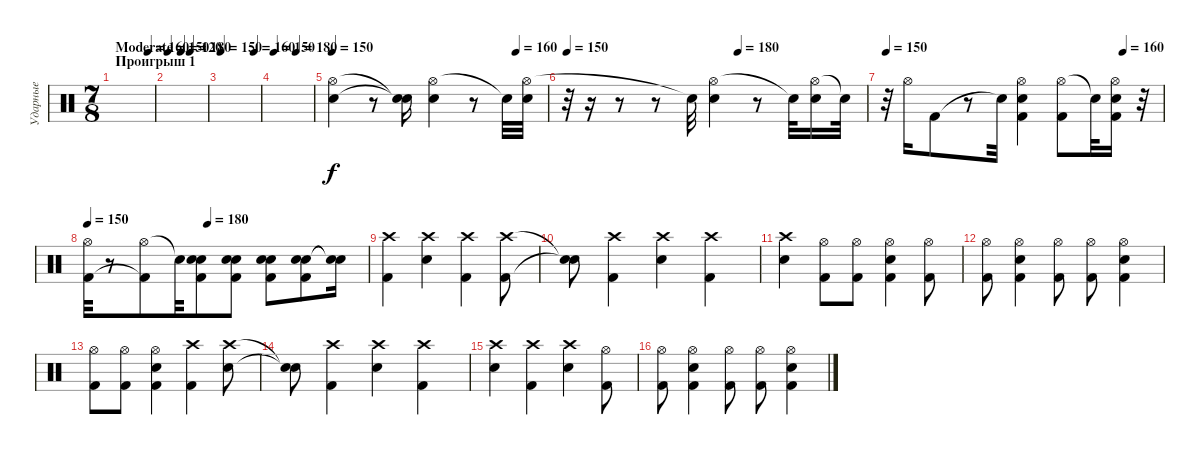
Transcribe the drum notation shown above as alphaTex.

\track ("Ударные" "Ударные") {instrument percussion}
\staff {score}
\articulation defaults
\ts (7 8)
\section ("" "Проигрыш 1")
\tempo (120 "Moderate")
\tempo 150
\tempo (160 0.8571428571428571)
\tempo (120 "Moderate")
\clef neutral
\ks c
|
\tempo 150
\tempo (180 0.5714285714285714)
|
\tempo 150
\tempo (160 0.8571428571428571)
|
\tempo 150
\tempo (180 0.5714285714285714)
|
\tempo 150
\tempo (160 0.8571428571428571)
("Hi-Hat (open)" "Snare (hit) 2").4 r.8 ("Snare (hit)"{t} "Snare (hit) 2"{t}).16 ("Hi-Hat (open)" "Snare (hit) 2").4 r.8 "Snare (hit)"{t}.32 ("Hi-Hat (open)" "Snare (hit) 2").32 |
\tempo 150
\tempo (180 0.5714285714285714)
r.32 r.16 r.8 r.8 "Snare (hit)"{t}.32 ("Hi-Hat (open)" "Snare (hit) 2").4 r.8 "Snare (hit)"{t}.32 ("Hi-Hat (open)" "Snare (hit) 2").16 "Snare (hit)"{t}.32 |
\tempo 150
\tempo (160 0.8571428571428571)
r.32 "Hi-Hat (open)".16 "Kick (hit) 2".8 r.8 "Snare (hit)"{t}.32 ("Hi-Hat (open)" "Snare (hit) 2" "Kick (hit) 2").4 ("Hi-Hat (open)" "Kick (hit) 2").8 "Snare (hit)"{t}.32 ("Hi-Hat (open)" "Snare (hit) 2" "Kick (hit) 2").16 r.32 |
\tempo 150
\tempo (180 0.42857142857142855)
("Hi-Hat (open)" "Kick (hit) 2").32 r.8 ("Hi-Hat (open)" "Kick (hit) 2"{t}).8 "Snare (hit)"{t}.32 ("Electric Snare (hit)" "Snare (hit) 2" "Kick (hit) 2").8 ("Electric Snare (hit)" "Snare (hit) 2" "Kick (hit) 2").8 ("Electric Snare (hit)" "Snare (hit) 2" "Kick (hit) 2").8 ("Electric Snare (hit)" "Snare (hit) 2" "Kick (hit) 2").8 ("Electric Snare (hit)"{t} "Snare (hit) 2"{t}).16 |
("Crash high (hit)" "Kick (hit) 2").4 ("Crash high (hit)" "Snare (hit) 2").4 ("Crash high (hit)" "Kick (hit) 2").4 ("Crash high (hit)" "Kick (hit) 2").8 |
("Snare (hit)"{t} "Snare (hit)"{t}).8 ("Crash high (hit)" "Kick (hit) 2").4 ("Crash high (hit)" "Snare (hit) 2").4 ("Crash high (hit)" "Kick (hit) 2").4 |
("Crash high (hit)" "Snare (hit) 2").4 ("Hi-Hat (open)" "Kick (hit) 2").8 ("Hi-Hat (open)" "Kick (hit) 2").8 ("Kick (hit) 2" "Electric Snare (hit)" "Hi-Hat (open)").4 ("Hi-Hat (open)" "Kick (hit) 2").8 |
("Hi-Hat (open)" "Kick (hit) 2").8 ("Kick (hit) 2" "Hi-Hat (open)" "Electric Snare (hit)").4 ("Hi-Hat (open)" "Kick (hit) 2").8 ("Hi-Hat (open)" "Kick (hit) 2").8 ("Kick (hit) 2" "Hi-Hat (open)" "Electric Snare (hit)").4 |
("Hi-Hat (open)" "Kick (hit) 2").8 ("Hi-Hat (open)" "Kick (hit) 2").8 ("Kick (hit) 2" "Hi-Hat (open)" "Electric Snare (hit)").4 ("Crash high (hit)" "Kick (hit) 2").4 ("Crash high (hit)" "Snare (hit) 2").8 |
("Snare (hit)"{t} "Snare (hit)"{t}).8 ("Crash high (hit)" "Kick (hit) 2").4 ("Crash high (hit)" "Snare (hit) 2").4 ("Crash high (hit)" "Kick (hit) 2").4 |
("Crash high (hit)" "Snare (hit) 2").4 ("Crash high (hit)" "Kick (hit) 2").4 ("Crash high (hit)" "Snare (hit) 2").4 ("Hi-Hat (open)" "Kick (hit) 2").8 |
("Hi-Hat (open)" "Kick (hit) 2").8 ("Kick (hit) 2" "Electric Snare (hit)" "Hi-Hat (open)").4 ("Hi-Hat (open)" "Kick (hit) 2").8 ("Hi-Hat (open)" "Kick (hit) 2").8 ("Kick (hit) 2" "Electric Snare (hit)" "Hi-Hat (open)").4
